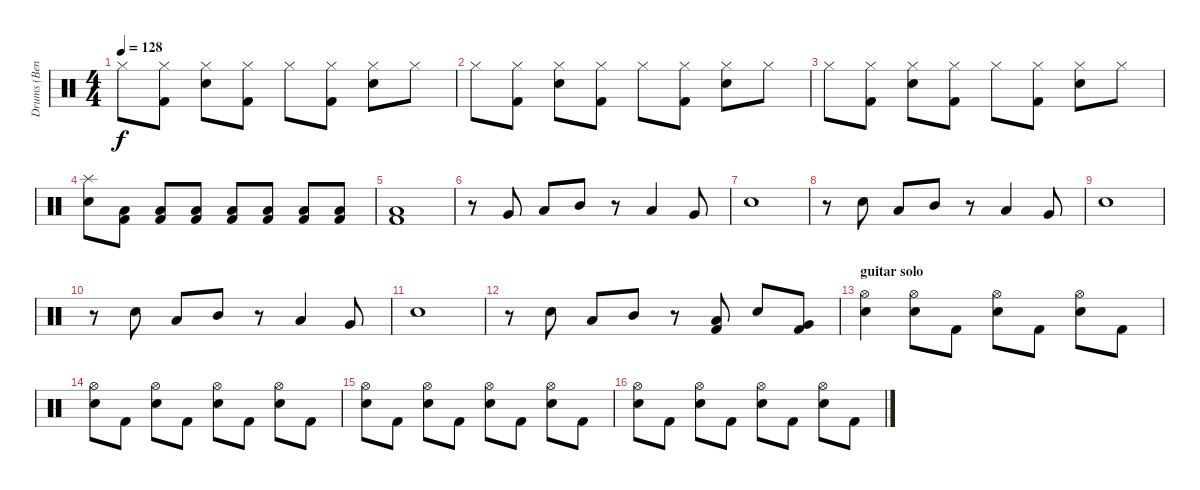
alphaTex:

\track ("Drums (Bengerg)" "Drums (Ben") {instrument percussion}
\staff {score}
\articulation defaults
\ts (4 4)
\tempo 128
\clef neutral
\ks c "Hi-Hat (closed)".8{dy f}
("Hi-Hat (closed)" "Kick (hit) 2").8 ("Hi-Hat (closed)" "Electric Snare (hit)").8 ("Hi-Hat (closed)" "Kick (hit) 2").8 "Hi-Hat (closed)".8 ("Hi-Hat (closed)" "Kick (hit) 2").8 ("Hi-Hat (closed)" "Electric Snare (hit)").8 "Hi-Hat (closed)".8 |
"Hi-Hat (closed)".8 ("Hi-Hat (closed)" "Kick (hit) 2").8 ("Hi-Hat (closed)" "Electric Snare (hit)").8 ("Hi-Hat (closed)" "Kick (hit) 2").8 "Hi-Hat (closed)".8 ("Hi-Hat (closed)" "Kick (hit) 2").8 ("Hi-Hat (closed)" "Electric Snare (hit)").8 "Hi-Hat (closed)".8 |
"Hi-Hat (closed)".8 ("Hi-Hat (closed)" "Kick (hit) 2").8 ("Hi-Hat (closed)" "Electric Snare (hit)").8 ("Hi-Hat (closed)" "Kick (hit) 2").8 "Hi-Hat (closed)".8 ("Hi-Hat (closed)" "Kick (hit) 2").8 ("Hi-Hat (closed)" "Electric Snare (hit)").8 "Hi-Hat (closed)".8 |
("Splash (hit)" "Electric Snare (hit)").8 ("Low Tom (hit)" "Kick (hit) 2").8 ("Low Tom (hit)" "Kick (hit) 2").8 ("Low Tom (hit)" "Kick (hit) 2").8 ("Low Tom (hit)" "Kick (hit) 2").8 ("Low Tom (hit)" "Kick (hit) 2").8 ("Low Tom (hit)" "Kick (hit) 2").8 ("Low Tom (hit)" "Kick (hit) 2").8 |
("Low Tom (hit)" "Kick (hit) 2").1 |
r.8 "Very Low Tom (hit)".8 "Low Tom (hit)".8 "Mid Tom (hit)".8 r.8 "Low Tom (hit)".4 "Very Low Tom (hit)".8 |
"Electric Snare (hit)".1 |
r.8 "Electric Snare (hit)".8 "Low Tom (hit)".8 "Mid Tom (hit)".8 r.8 "Low Tom (hit)".4 "Very Low Tom (hit)".8 |
"Electric Snare (hit)".1 |
r.8 "Electric Snare (hit)".8 "Low Tom (hit)".8 "Mid Tom (hit)".8 r.8 "Low Tom (hit)".4 "Very Low Tom (hit)".8 |
"Electric Snare (hit)".1 |
r.8 "Electric Snare (hit)".8 "Low Tom (hit)".8 "Mid Tom (hit)".8 r.8 ("Low Tom (hit)" "Kick (hit) 2").8 "Electric Snare (hit)".8 ("Very Low Tom (hit)" "Kick (hit) 2").8 |
\section ("" "guitar solo")
("Hi-Hat (open)" "Electric Snare (hit)").4 ("Hi-Hat (open)" "Electric Snare (hit)").8 "Kick (hit) 2".8 ("Hi-Hat (open)" "Electric Snare (hit)").8 "Kick (hit) 2".8 ("Hi-Hat (open)" "Electric Snare (hit)").8 "Kick (hit) 2".8 |
("Hi-Hat (open)" "Electric Snare (hit)").8 "Kick (hit) 2".8 ("Hi-Hat (open)" "Electric Snare (hit)").8 "Kick (hit) 2".8 ("Hi-Hat (open)" "Electric Snare (hit)").8 "Kick (hit) 2".8 ("Hi-Hat (open)" "Electric Snare (hit)").8 "Kick (hit) 2".8 |
("Hi-Hat (open)" "Electric Snare (hit)").8 "Kick (hit) 2".8 ("Hi-Hat (open)" "Electric Snare (hit)").8 "Kick (hit) 2".8 ("Hi-Hat (open)" "Electric Snare (hit)").8 "Kick (hit) 2".8 ("Hi-Hat (open)" "Electric Snare (hit)").8 "Kick (hit) 2".8 |
("Hi-Hat (open)" "Electric Snare (hit)").8 "Kick (hit) 2".8 ("Hi-Hat (open)" "Electric Snare (hit)").8 "Kick (hit) 2".8 ("Hi-Hat (open)" "Electric Snare (hit)").8 "Kick (hit) 2".8 ("Hi-Hat (open)" "Electric Snare (hit)").8 "Kick (hit) 2".8
